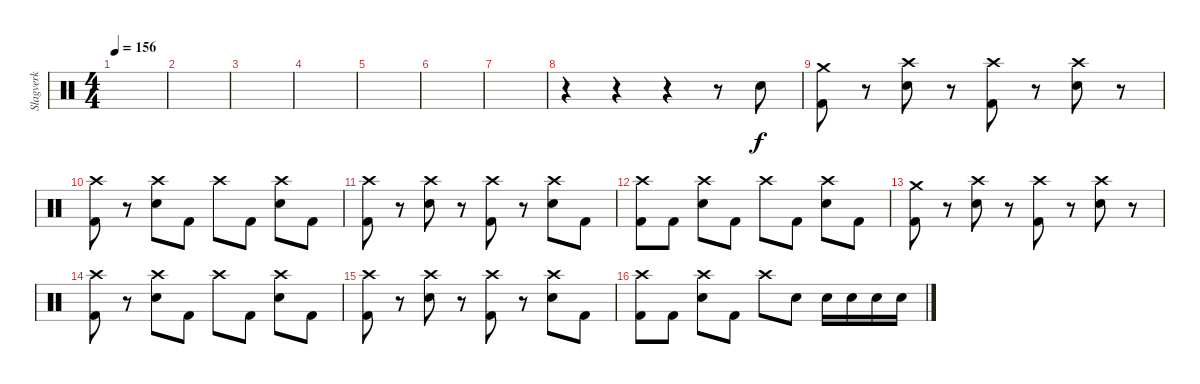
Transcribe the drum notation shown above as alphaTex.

\track ("Slagverk" "Slagverk") {instrument percussion}
\staff {score}
\articulation defaults
\ts (4 4)
\tempo 156
\clef neutral
\ks c
|
|
|
|
|
|
|
r.4 r.4 r.4 r.8 "Snare (hit) 2".8 |
("Crash medium (hit)" "Kick (hit) 2").8 r.8 ("Crash high (hit)" "Snare (hit) 2").8 r.8 ("Crash high (hit)" "Kick (hit) 2").8 r.8 ("Crash high (hit)" "Snare (hit) 2").8 r.8 |
("Crash high (hit)" "Kick (hit) 2").8 r.8 ("Crash high (hit)" "Snare (hit) 2").8 "Kick (hit) 2".8 "Crash high (hit)".8 "Kick (hit) 2".8 ("Crash high (hit)" "Snare (hit) 2").8 "Kick (hit) 2".8 |
("Crash high (hit)" "Kick (hit) 2").8 r.8 ("Crash high (hit)" "Snare (hit) 2").8 r.8 ("Crash high (hit)" "Kick (hit) 2").8 r.8 ("Crash high (hit)" "Snare (hit) 2").8 "Kick (hit) 2".8 |
("Crash high (hit)" "Kick (hit) 2").8 "Kick (hit) 2".8 ("Crash high (hit)" "Snare (hit) 2").8 "Kick (hit) 2".8 "Crash high (hit)".8 "Kick (hit) 2".8 ("Crash high (hit)" "Snare (hit) 2").8 "Kick (hit) 2".8 |
("Crash medium (hit)" "Kick (hit) 2").8 r.8 ("Crash high (hit)" "Snare (hit) 2").8 r.8 ("Crash high (hit)" "Kick (hit) 2").8 r.8 ("Crash high (hit)" "Snare (hit) 2").8 r.8 |
("Crash high (hit)" "Kick (hit) 2").8 r.8 ("Crash high (hit)" "Snare (hit) 2").8 "Kick (hit) 2".8 "Crash high (hit)".8 "Kick (hit) 2".8 ("Crash high (hit)" "Snare (hit) 2").8 "Kick (hit) 2".8 |
("Crash high (hit)" "Kick (hit) 2").8 r.8 ("Crash high (hit)" "Snare (hit) 2").8 r.8 ("Crash high (hit)" "Kick (hit) 2").8 r.8 ("Crash high (hit)" "Snare (hit) 2").8 "Kick (hit) 2".8 |
("Crash high (hit)" "Kick (hit) 2").8 "Kick (hit) 2".8 ("Crash high (hit)" "Snare (hit) 2").8 "Kick (hit) 2".8 "Crash high (hit)".8 "Snare (hit) 2".8 "Snare (hit) 2".16 "Snare (hit) 2".16 "Snare (hit) 2".16 "Snare (hit) 2".16
